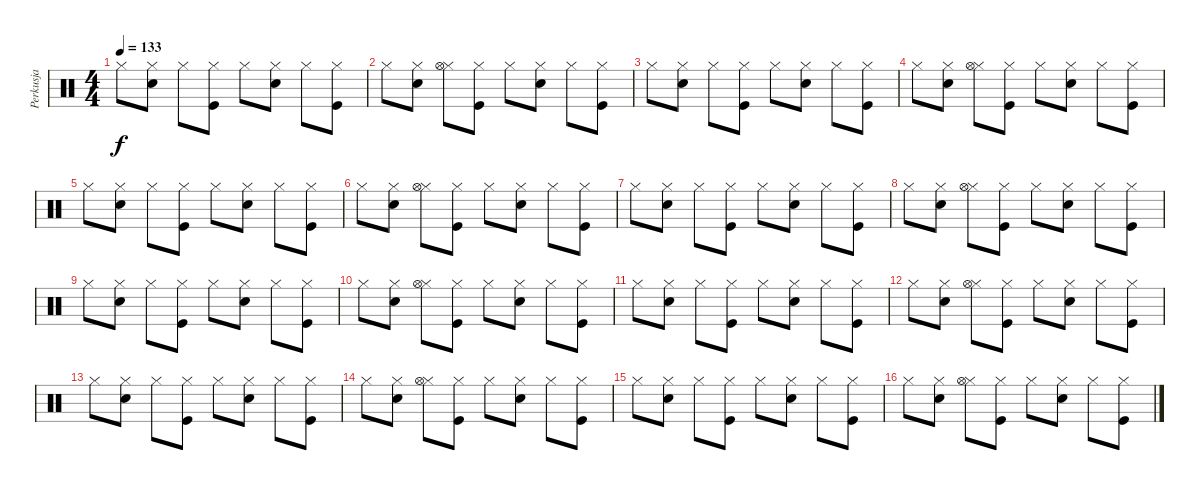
\track ("Perkusja" "Perkusja") {instrument percussion}
\staff {score}
\articulation defaults
\ts (4 4)
\tempo 133
\clef neutral
\ks c "Hi-Hat (closed)".8{dy f}
("Hi-Hat (closed)" "Snare (hit) 2").8 "Hi-Hat (closed)".8 ("Hi-Hat (closed)" "Kick (hit)").8 "Hi-Hat (closed)".8 ("Hi-Hat (closed)" "Snare (hit) 2").8 "Hi-Hat (closed)".8 ("Hi-Hat (closed)" "Kick (hit)").8 |
"Hi-Hat (closed)".8 ("Hi-Hat (closed)" "Snare (hit) 2").8 ("Hi-Hat (closed)" "Hi-Hat (open)").8 ("Hi-Hat (closed)" "Kick (hit)").8 "Hi-Hat (closed)".8 ("Hi-Hat (closed)" "Snare (hit) 2").8 "Hi-Hat (closed)".8 ("Hi-Hat (closed)" "Kick (hit)").8 |
"Hi-Hat (closed)".8 ("Hi-Hat (closed)" "Snare (hit) 2").8 "Hi-Hat (closed)".8 ("Hi-Hat (closed)" "Kick (hit)").8 "Hi-Hat (closed)".8 ("Hi-Hat (closed)" "Snare (hit) 2").8 "Hi-Hat (closed)".8 ("Hi-Hat (closed)" "Kick (hit)").8 |
"Hi-Hat (closed)".8 ("Hi-Hat (closed)" "Snare (hit) 2").8 ("Hi-Hat (closed)" "Hi-Hat (open)").8 ("Hi-Hat (closed)" "Kick (hit)").8 "Hi-Hat (closed)".8 ("Hi-Hat (closed)" "Snare (hit) 2").8 "Hi-Hat (closed)".8 ("Hi-Hat (closed)" "Kick (hit)").8 |
"Hi-Hat (closed)".8 ("Hi-Hat (closed)" "Snare (hit) 2").8 "Hi-Hat (closed)".8 ("Hi-Hat (closed)" "Kick (hit)").8 "Hi-Hat (closed)".8 ("Hi-Hat (closed)" "Snare (hit) 2").8 "Hi-Hat (closed)".8 ("Hi-Hat (closed)" "Kick (hit)").8 |
"Hi-Hat (closed)".8 ("Hi-Hat (closed)" "Snare (hit) 2").8 ("Hi-Hat (closed)" "Hi-Hat (open)").8 ("Hi-Hat (closed)" "Kick (hit)").8 "Hi-Hat (closed)".8 ("Hi-Hat (closed)" "Snare (hit) 2").8 "Hi-Hat (closed)".8 ("Hi-Hat (closed)" "Kick (hit)").8 |
"Hi-Hat (closed)".8 ("Hi-Hat (closed)" "Snare (hit) 2").8 "Hi-Hat (closed)".8 ("Hi-Hat (closed)" "Kick (hit)").8 "Hi-Hat (closed)".8 ("Hi-Hat (closed)" "Snare (hit) 2").8 "Hi-Hat (closed)".8 ("Hi-Hat (closed)" "Kick (hit)").8 |
"Hi-Hat (closed)".8 ("Hi-Hat (closed)" "Snare (hit) 2").8 ("Hi-Hat (closed)" "Hi-Hat (open)").8 ("Hi-Hat (closed)" "Kick (hit)").8 "Hi-Hat (closed)".8 ("Hi-Hat (closed)" "Snare (hit) 2").8 "Hi-Hat (closed)".8 ("Hi-Hat (closed)" "Kick (hit)").8 |
"Hi-Hat (closed)".8 ("Hi-Hat (closed)" "Snare (hit) 2").8 "Hi-Hat (closed)".8 ("Hi-Hat (closed)" "Kick (hit)").8 "Hi-Hat (closed)".8 ("Hi-Hat (closed)" "Snare (hit) 2").8 "Hi-Hat (closed)".8 ("Hi-Hat (closed)" "Kick (hit)").8 |
"Hi-Hat (closed)".8 ("Hi-Hat (closed)" "Snare (hit) 2").8 ("Hi-Hat (closed)" "Hi-Hat (open)").8 ("Hi-Hat (closed)" "Kick (hit)").8 "Hi-Hat (closed)".8 ("Hi-Hat (closed)" "Snare (hit) 2").8 "Hi-Hat (closed)".8 ("Hi-Hat (closed)" "Kick (hit)").8 |
"Hi-Hat (closed)".8 ("Hi-Hat (closed)" "Snare (hit) 2").8 "Hi-Hat (closed)".8 ("Hi-Hat (closed)" "Kick (hit)").8 "Hi-Hat (closed)".8 ("Hi-Hat (closed)" "Snare (hit) 2").8 "Hi-Hat (closed)".8 ("Hi-Hat (closed)" "Kick (hit)").8 |
"Hi-Hat (closed)".8 ("Hi-Hat (closed)" "Snare (hit) 2").8 ("Hi-Hat (closed)" "Hi-Hat (open)").8 ("Hi-Hat (closed)" "Kick (hit)").8 "Hi-Hat (closed)".8 ("Hi-Hat (closed)" "Snare (hit) 2").8 "Hi-Hat (closed)".8 ("Hi-Hat (closed)" "Kick (hit)").8 |
"Hi-Hat (closed)".8 ("Hi-Hat (closed)" "Snare (hit) 2").8 "Hi-Hat (closed)".8 ("Hi-Hat (closed)" "Kick (hit)").8 "Hi-Hat (closed)".8 ("Hi-Hat (closed)" "Snare (hit) 2").8 "Hi-Hat (closed)".8 ("Hi-Hat (closed)" "Kick (hit)").8 |
"Hi-Hat (closed)".8 ("Hi-Hat (closed)" "Snare (hit) 2").8 ("Hi-Hat (closed)" "Hi-Hat (open)").8 ("Hi-Hat (closed)" "Kick (hit)").8 "Hi-Hat (closed)".8 ("Hi-Hat (closed)" "Snare (hit) 2").8 "Hi-Hat (closed)".8 ("Hi-Hat (closed)" "Kick (hit)").8 |
"Hi-Hat (closed)".8 ("Hi-Hat (closed)" "Snare (hit) 2").8 "Hi-Hat (closed)".8 ("Hi-Hat (closed)" "Kick (hit)").8 "Hi-Hat (closed)".8 ("Hi-Hat (closed)" "Snare (hit) 2").8 "Hi-Hat (closed)".8 ("Hi-Hat (closed)" "Kick (hit)").8 |
"Hi-Hat (closed)".8 ("Hi-Hat (closed)" "Snare (hit) 2").8 ("Hi-Hat (closed)" "Hi-Hat (open)").8 ("Hi-Hat (closed)" "Kick (hit)").8 "Hi-Hat (closed)".8 ("Hi-Hat (closed)" "Snare (hit) 2").8 "Hi-Hat (closed)".8 ("Hi-Hat (closed)" "Kick (hit)").8
